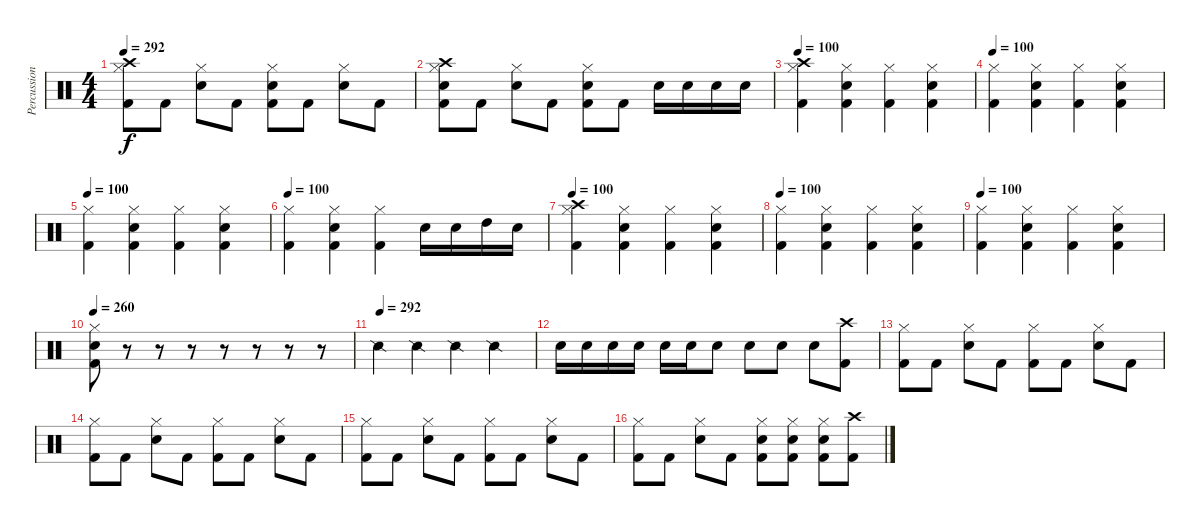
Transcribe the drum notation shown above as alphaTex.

\track ("Percussion" "Percussion") {instrument percussion}
\staff {score}
\articulation defaults
\ts (4 4)
\tempo 292
\clef neutral
\ks c
("Crash high (hit)" "Hi-Hat (closed)" "Kick (hit) 2").8{dy f} "Kick (hit) 2".8 ("Hi-Hat (closed)" "Electric Snare (hit)").8 "Kick (hit) 2".8 ("Hi-Hat (closed)" "Electric Snare (hit)" "Kick (hit) 2").8 "Kick (hit) 2".8 ("Hi-Hat (closed)" "Electric Snare (hit)").8 "Kick (hit) 2".8 |
("Crash high (hit)" "Hi-Hat (closed)" "Electric Snare (hit)" "Kick (hit) 2").8 "Kick (hit) 2".8 ("Hi-Hat (closed)" "Electric Snare (hit)").8 "Kick (hit) 2".8 ("Hi-Hat (closed)" "Electric Snare (hit)" "Kick (hit) 2").8 "Kick (hit) 2".8 "Electric Snare (hit)".16 "Electric Snare (hit)".16 "Electric Snare (hit)".16 "Electric Snare (hit)".16 |
\tempo 100
("Crash high (hit)" "Hi-Hat (closed)" "Kick (hit) 2").4 ("Hi-Hat (closed)" "Electric Snare (hit)" "Kick (hit) 2").4 ("Hi-Hat (closed)" "Kick (hit) 2").4 ("Hi-Hat (closed)" "Electric Snare (hit)" "Kick (hit) 2").4 |
\tempo 100
("Hi-Hat (closed)" "Kick (hit) 2").4 ("Hi-Hat (closed)" "Electric Snare (hit)" "Kick (hit) 2").4 ("Hi-Hat (closed)" "Kick (hit) 2").4 ("Hi-Hat (closed)" "Electric Snare (hit)" "Kick (hit) 2").4 |
\tempo 100
("Hi-Hat (closed)" "Kick (hit) 2").4 ("Hi-Hat (closed)" "Electric Snare (hit)" "Kick (hit) 2").4 ("Hi-Hat (closed)" "Kick (hit) 2").4 ("Hi-Hat (closed)" "Electric Snare (hit)" "Kick (hit) 2").4 |
\tempo 100
("Hi-Hat (closed)" "Kick (hit) 2").4 ("Hi-Hat (closed)" "Electric Snare (hit)" "Kick (hit) 2").4 ("Hi-Hat (closed)" "Kick (hit) 2").4 "Electric Snare (hit)".16 "Electric Snare (hit)".16 "High Tom (hit)".16 "Electric Snare (hit)".16 |
\tempo 100
("Crash high (hit)" "Hi-Hat (closed)" "Kick (hit) 2").4 ("Hi-Hat (closed)" "Electric Snare (hit)" "Kick (hit) 2").4 ("Hi-Hat (closed)" "Kick (hit) 2").4 ("Hi-Hat (closed)" "Electric Snare (hit)" "Kick (hit) 2").4 |
\tempo 100
("Hi-Hat (closed)" "Kick (hit) 2").4 ("Hi-Hat (closed)" "Electric Snare (hit)" "Kick (hit) 2").4 ("Hi-Hat (closed)" "Kick (hit) 2").4 ("Hi-Hat (closed)" "Electric Snare (hit)" "Kick (hit) 2").4 |
\tempo 100
("Hi-Hat (closed)" "Kick (hit) 2").4 ("Hi-Hat (closed)" "Electric Snare (hit)" "Kick (hit) 2").4 ("Hi-Hat (closed)" "Kick (hit) 2").4 ("Hi-Hat (closed)" "Electric Snare (hit)" "Kick (hit) 2").4 |
\tempo 260
("Hi-Hat (closed)" "Electric Snare (hit)" "Kick (hit) 2").8 r.8 r.8 r.8 r.8 r.8 r.8 r.8 |
\tempo (292)
"Snare (side stick) 2".4 "Snare (side stick) 2".4 "Snare (side stick) 2".4 "Snare (side stick) 2".4 |
"Electric Snare (hit)".16 "Electric Snare (hit)".16 "Electric Snare (hit)".16 "Electric Snare (hit)".16 "Electric Snare (hit)".16 "Electric Snare (hit)".16 "Electric Snare (hit)".8 "Electric Snare (hit)".8 "Electric Snare (hit)".8 "Electric Snare (hit)".8 ("Crash high (hit)" "Kick (hit) 2").8 |
("Hi-Hat (closed)" "Kick (hit) 2").8 "Kick (hit) 2".8 ("Hi-Hat (closed)" "Electric Snare (hit)").8 "Kick (hit) 2".8 ("Hi-Hat (closed)" "Kick (hit) 2").8 "Kick (hit) 2".8 ("Hi-Hat (closed)" "Electric Snare (hit)").8 "Kick (hit) 2".8 |
("Hi-Hat (closed)" "Kick (hit) 2").8 "Kick (hit) 2".8 ("Hi-Hat (closed)" "Electric Snare (hit)").8 "Kick (hit) 2".8 ("Hi-Hat (closed)" "Kick (hit) 2").8 "Kick (hit) 2".8 ("Hi-Hat (closed)" "Electric Snare (hit)").8 "Kick (hit) 2".8 |
("Hi-Hat (closed)" "Kick (hit) 2").8 "Kick (hit) 2".8 ("Hi-Hat (closed)" "Electric Snare (hit)").8 "Kick (hit) 2".8 ("Hi-Hat (closed)" "Kick (hit) 2").8 "Kick (hit) 2".8 ("Hi-Hat (closed)" "Electric Snare (hit)").8 "Kick (hit) 2".8 |
("Hi-Hat (closed)" "Kick (hit) 2").8 "Kick (hit) 2".8 ("Hi-Hat (closed)" "Electric Snare (hit)").8 "Kick (hit) 2".8 ("Hi-Hat (closed)" "Electric Snare (hit)" "Kick (hit) 2").8 ("Hi-Hat (closed)" "Electric Snare (hit)" "Kick (hit) 2").8 ("Hi-Hat (closed)" "Electric Snare (hit)" "Kick (hit) 2").8 ("Crash high (hit)" "Kick (hit) 2").8
